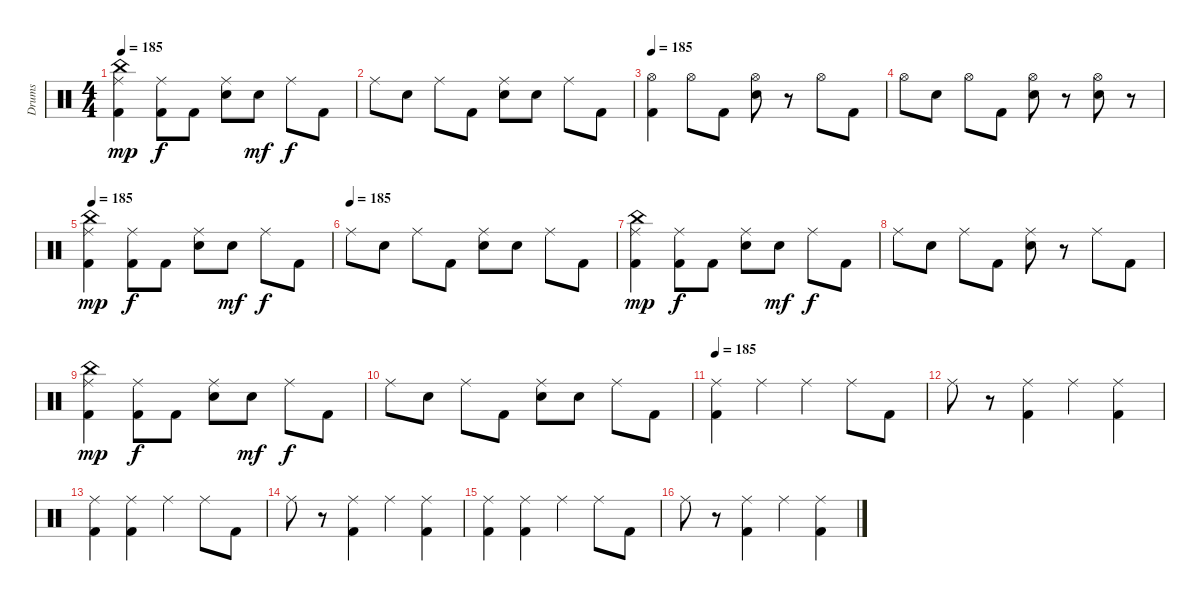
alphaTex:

\track ("Drums" "Drums") {instrument percussion}
\staff {score}
\articulation defaults
\ts (4 4)
\tempo 185
\clef neutral
\ks c
("Ride (middle)" "China (hit)" "Kick (hit) 2").4{dy mp} ("Ride (middle)" "Kick (hit) 2").8{dy f} "Kick (hit) 2".8 ("Ride (middle)" "Snare (hit) 2").8 "Snare (hit) 2".8{dy mf} "Ride (middle)".8{dy f} "Kick (hit) 2".8 |
"Ride (middle)".8 "Snare (hit) 2".8 "Ride (middle)".8 "Kick (hit) 2".8 ("Ride (middle)" "Snare (hit) 2").8 "Snare (hit) 2".8 "Ride (middle)".8 "Kick (hit) 2".8 |
\tempo 185
("Hi-Hat (open)" "Kick (hit) 2").4 "Hi-Hat (open)".8 "Kick (hit) 2".8 ("Hi-Hat (open)" "Snare (hit) 2").8 r.8 "Hi-Hat (open)".8 "Kick (hit) 2".8 |
"Hi-Hat (open)".8 "Snare (hit) 2".8 "Hi-Hat (open)".8 "Kick (hit) 2".8 ("Hi-Hat (open)" "Snare (hit) 2").8 r.8 ("Hi-Hat (open)" "Snare (hit) 2").8 r.8 |
\tempo 185
("Ride (middle)" "China (hit)" "Kick (hit) 2").4{dy mp volume 12} ("Ride (middle)" "Kick (hit) 2").8{dy f} "Kick (hit) 2".8 ("Ride (middle)" "Snare (hit) 2").8 "Snare (hit) 2".8{dy mf} "Ride (middle)".8{dy f} "Kick (hit) 2".8 |
\tempo (185)
"Ride (middle)".8 "Snare (hit) 2".8 "Ride (middle)".8 "Kick (hit) 2".8 ("Ride (middle)" "Snare (hit) 2").8 "Snare (hit) 2".8 "Ride (middle)".8 "Kick (hit) 2".8 |
("Ride (middle)" "China (hit)" "Kick (hit) 2").4{dy mp} ("Ride (middle)" "Kick (hit) 2").8{dy f} "Kick (hit) 2".8 ("Ride (middle)" "Snare (hit) 2").8 "Snare (hit) 2".8{dy mf} "Ride (middle)".8{dy f} "Kick (hit) 2".8 |
"Ride (middle)".8 "Snare (hit) 2".8 "Ride (middle)".8 "Kick (hit) 2".8 ("Ride (middle)" "Snare (hit) 2").8 r.8 "Ride (middle)".8 "Kick (hit) 2".8 |
("Ride (middle)" "China (hit)" "Kick (hit) 2").4{dy mp} ("Ride (middle)" "Kick (hit) 2").8{dy f} "Kick (hit) 2".8 ("Ride (middle)" "Snare (hit) 2").8 "Snare (hit) 2".8{dy mf} "Ride (middle)".8{dy f} "Kick (hit) 2".8 |
"Ride (middle)".8 "Snare (hit) 2".8 "Ride (middle)".8 "Kick (hit) 2".8 ("Ride (middle)" "Snare (hit) 2").8 "Snare (hit) 2".8 "Ride (middle)".8 "Kick (hit) 2".8 |
\tempo 185
("Ride (middle)" "Kick (hit) 2").4 "Ride (middle)".4 "Ride (middle)".4 "Ride (middle)".8 "Kick (hit) 2".8 |
"Ride (middle)".8 r.8 ("Ride (middle)" "Kick (hit) 2").4 "Ride (middle)".4 ("Ride (middle)" "Kick (hit) 2").4 |
("Ride (middle)" "Kick (hit) 2").4 ("Ride (middle)" "Kick (hit) 2").4 "Ride (middle)".4 "Ride (middle)".8 "Kick (hit) 2".8 |
"Ride (middle)".8 r.8 ("Ride (middle)" "Kick (hit) 2").4 "Ride (middle)".4 ("Ride (middle)" "Kick (hit) 2").4 |
("Ride (middle)" "Kick (hit) 2").4 ("Ride (middle)" "Kick (hit) 2").4 "Ride (middle)".4 "Ride (middle)".8 "Kick (hit) 2".8 |
"Ride (middle)".8 r.8 ("Ride (middle)" "Kick (hit) 2").4 "Ride (middle)".4 ("Ride (middle)" "Kick (hit) 2").4
